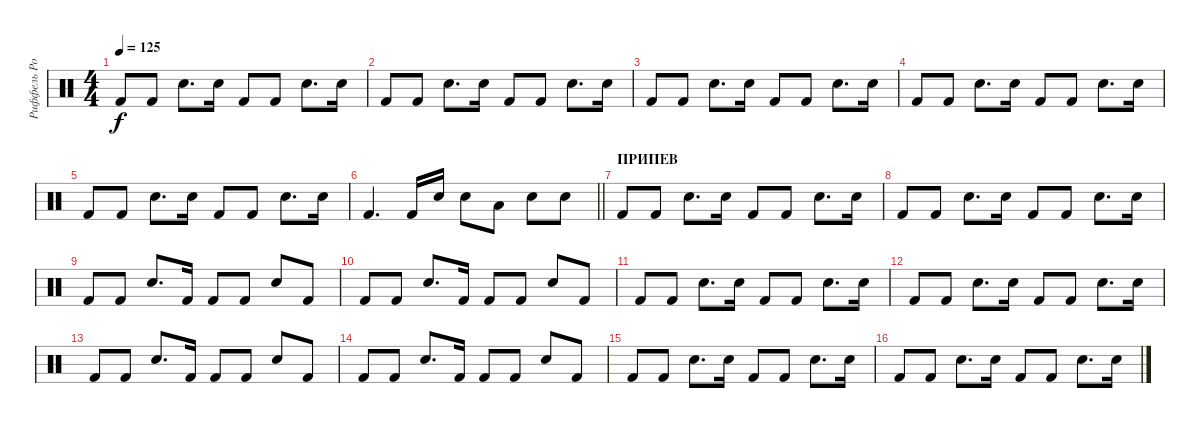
\track ("Риффель Роман(главные)" "Риффель Ро") {instrument percussion}
\staff {score}
\articulation defaults
\ts (4 4)
\tempo 125
\clef neutral
\ks c "Kick (hit) 2".8{dy f} "Kick (hit) 2".8 "Electric Snare (hit)".8{d} "Electric Snare (hit)".16 "Kick (hit) 2".8 "Kick (hit) 2".8 "Electric Snare (hit)".8{d} "Electric Snare (hit)".16
|
"Kick (hit) 2".8 "Kick (hit) 2".8 "Electric Snare (hit)".8{d} "Electric Snare (hit)".16 "Kick (hit) 2".8 "Kick (hit) 2".8 "Electric Snare (hit)".8{d} "Electric Snare (hit)".16 |
"Kick (hit) 2".8 "Kick (hit) 2".8 "Electric Snare (hit)".8{d} "Electric Snare (hit)".16 "Kick (hit) 2".8 "Kick (hit) 2".8 "Electric Snare (hit)".8{d} "Electric Snare (hit)".16 |
"Kick (hit) 2".8 "Kick (hit) 2".8 "Electric Snare (hit)".8{d} "Electric Snare (hit)".16 "Kick (hit) 2".8 "Kick (hit) 2".8 "Electric Snare (hit)".8{d} "Electric Snare (hit)".16 |
"Kick (hit) 2".8 "Kick (hit) 2".8 "Electric Snare (hit)".8{d} "Electric Snare (hit)".16 "Kick (hit) 2".8 "Kick (hit) 2".8 "Electric Snare (hit)".8{d} "Electric Snare (hit)".16 |
\barLineRight lightlight "Kick (hit) 2".4{d} "Kick (hit) 2".16 "Electric Snare (hit)".16 "Electric Snare (hit)".8 "Low Tom (hit)".8 "Electric Snare (hit)".8 "Electric Snare (hit)".8
|
\section ("" "ПРИПЕВ")
"Kick (hit) 2".8 "Kick (hit) 2".8 "Electric Snare (hit)".8{d} "Electric Snare (hit)".16 "Kick (hit) 2".8 "Kick (hit) 2".8 "Electric Snare (hit)".8{d} "Electric Snare (hit)".16 |
"Kick (hit) 2".8 "Kick (hit) 2".8 "Electric Snare (hit)".8{d} "Electric Snare (hit)".16 "Kick (hit) 2".8 "Kick (hit) 2".8 "Electric Snare (hit)".8{d} "Electric Snare (hit)".16 |
"Kick (hit) 2".8 "Kick (hit) 2".8 "Electric Snare (hit)".8{d} "Kick (hit) 2".16 "Kick (hit) 2".8 "Kick (hit) 2".8 "Electric Snare (hit)".8 "Kick (hit) 2".8 |
"Kick (hit) 2".8 "Kick (hit) 2".8 "Electric Snare (hit)".8{d} "Kick (hit) 2".16 "Kick (hit) 2".8 "Kick (hit) 2".8 "Electric Snare (hit)".8 "Kick (hit) 2".8 |
"Kick (hit) 2".8 "Kick (hit) 2".8 "Electric Snare (hit)".8{d} "Electric Snare (hit)".16 "Kick (hit) 2".8 "Kick (hit) 2".8 "Electric Snare (hit)".8{d} "Electric Snare (hit)".16 |
"Kick (hit) 2".8 "Kick (hit) 2".8 "Electric Snare (hit)".8{d} "Electric Snare (hit)".16 "Kick (hit) 2".8 "Kick (hit) 2".8 "Electric Snare (hit)".8{d} "Electric Snare (hit)".16 |
"Kick (hit) 2".8 "Kick (hit) 2".8 "Electric Snare (hit)".8{d} "Kick (hit) 2".16 "Kick (hit) 2".8 "Kick (hit) 2".8 "Electric Snare (hit)".8 "Kick (hit) 2".8 |
"Kick (hit) 2".8 "Kick (hit) 2".8 "Electric Snare (hit)".8{d} "Kick (hit) 2".16 "Kick (hit) 2".8 "Kick (hit) 2".8 "Electric Snare (hit)".8 "Kick (hit) 2".8 |
"Kick (hit) 2".8 "Kick (hit) 2".8 "Electric Snare (hit)".8{d} "Electric Snare (hit)".16 "Kick (hit) 2".8 "Kick (hit) 2".8 "Electric Snare (hit)".8{d} "Electric Snare (hit)".16 |
"Kick (hit) 2".8 "Kick (hit) 2".8 "Electric Snare (hit)".8{d} "Electric Snare (hit)".16 "Kick (hit) 2".8 "Kick (hit) 2".8 "Electric Snare (hit)".8{d} "Electric Snare (hit)".16
